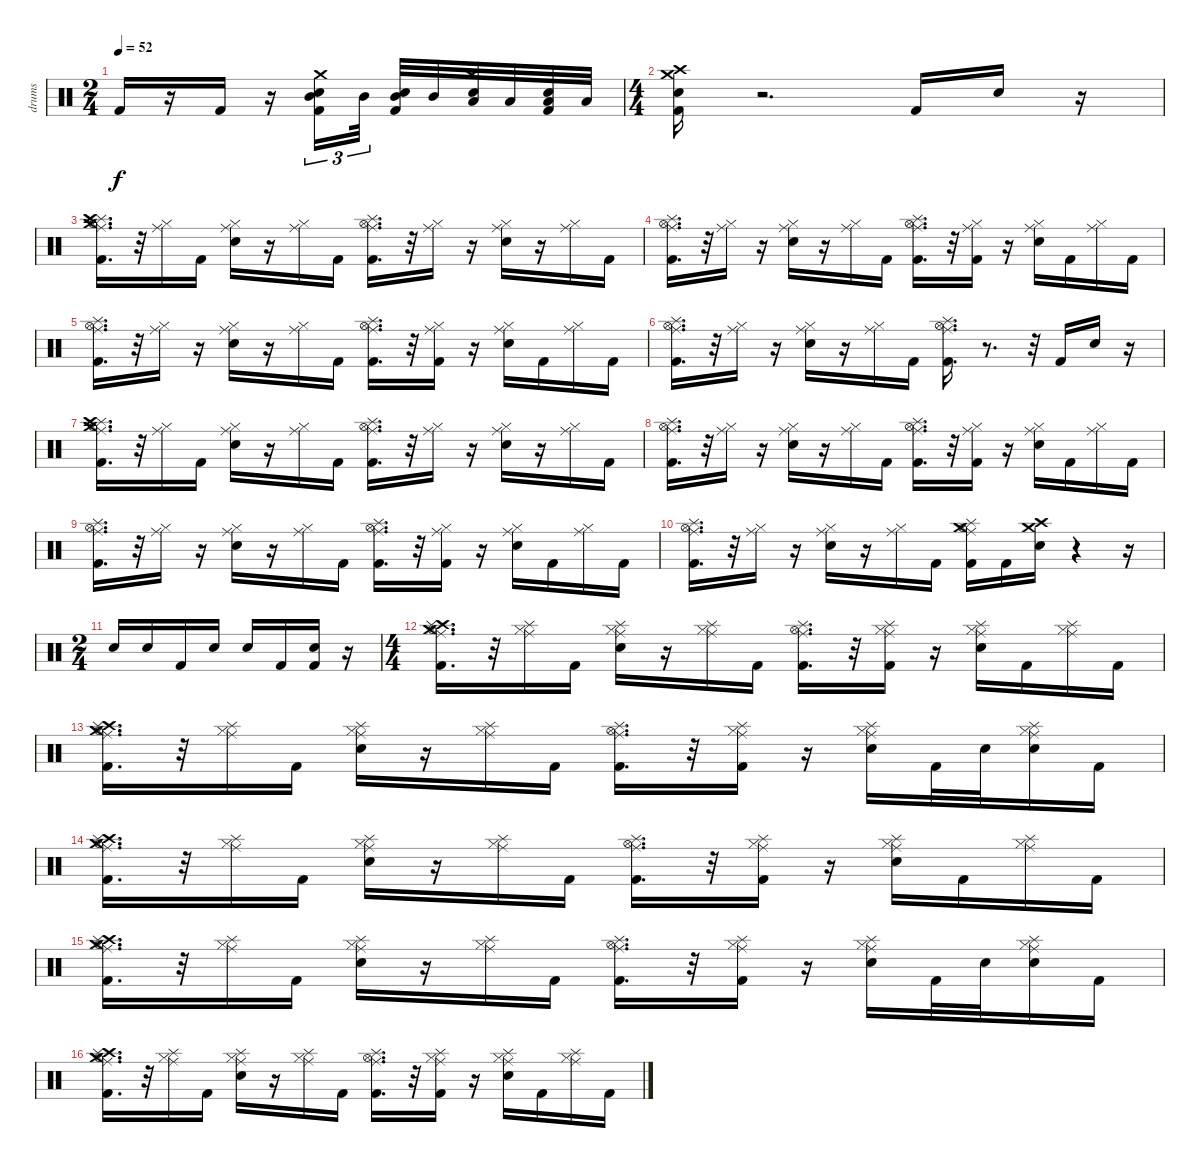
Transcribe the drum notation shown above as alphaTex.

\track ("drums" "drums") {instrument percussion}
\staff {score}
\articulation defaults
\ts (2 4)
\tempo 52
\clef neutral
\ks c "Kick (hit) 2".16{dy f}
r.16 "Kick (hit) 2".16 r.16 ("Mid Tom (hit)" "Kick (hit) 2" "Snare (hit) 2" "Crash medium (hit)").16{tu (3 2)} "Mid Tom (hit)".32{tu (3 2)} ("Mid Tom (hit)" "Kick (hit) 2" "Snare (hit) 2").32 "Mid Tom (hit)".32 ("Low Tom (hit)" "Snare (hit) 2" "Crash medium (hit)").32 "Low Tom (hit)".32 ("Low Tom (hit)" "Kick (hit) 2" "Snare (hit) 2").32 "Low Tom (hit)".32 |
\ts (4 4)
("Crash medium (hit)" "Crash high (hit)" "Kick (hit) 2" "Snare (hit) 2").16 r.2{d} "Kick (hit) 2".16 "Snare (hit) 2".16 r.16 |
("Ride (middle)" "Hi-Hat (open)" "Splash (hit)" "Crash medium (hit)" "Crash high (hit)" "Kick (hit) 2").16{d} r.32 ("Ride (middle)" "Hi-Hat (closed)").16 "Kick (hit) 2".16 ("Ride (middle)" "Hi-Hat (closed)" "Snare (hit) 2").16 r.16 ("Ride (middle)" "Hi-Hat (closed)").16 "Kick (hit) 2".16 ("Ride (middle)" "Hi-Hat (open)" "Splash (hit)" "Kick (hit) 2").16{d} r.32 ("Ride (middle)" "Hi-Hat (closed)").16 r.16 ("Ride (middle)" "Hi-Hat (closed)" "Snare (hit) 2").16 r.16 ("Ride (middle)" "Hi-Hat (closed)").16 "Kick (hit) 2".16 |
("Ride (middle)" "Hi-Hat (open)" "Splash (hit)" "Kick (hit) 2").16{d} r.32 ("Ride (middle)" "Hi-Hat (closed)").16 r.16 ("Ride (middle)" "Hi-Hat (closed)" "Snare (hit) 2").16 r.16 ("Ride (middle)" "Hi-Hat (closed)").16 "Kick (hit) 2".16 ("Ride (middle)" "Hi-Hat (open)" "Splash (hit)" "Kick (hit) 2").16{d} r.32 ("Ride (middle)" "Hi-Hat (closed)" "Kick (hit) 2").16 r.16 ("Ride (middle)" "Hi-Hat (closed)" "Snare (hit) 2").16 "Kick (hit) 2".16 ("Ride (middle)" "Hi-Hat (closed)").16 "Kick (hit) 2".16 |
("Ride (middle)" "Hi-Hat (open)" "Splash (hit)" "Kick (hit) 2").16{d} r.32 ("Ride (middle)" "Hi-Hat (closed)").16 r.16 ("Ride (middle)" "Hi-Hat (closed)" "Snare (hit) 2").16 r.16 ("Ride (middle)" "Hi-Hat (closed)").16 "Kick (hit) 2".16 ("Ride (middle)" "Hi-Hat (open)" "Splash (hit)" "Kick (hit) 2").16{d} r.32 ("Ride (middle)" "Hi-Hat (closed)" "Kick (hit) 2").16 r.16 ("Ride (middle)" "Hi-Hat (closed)" "Snare (hit) 2").16 "Kick (hit) 2".16 ("Ride (middle)" "Hi-Hat (closed)").16 "Kick (hit) 2".16 |
("Ride (middle)" "Hi-Hat (open)" "Splash (hit)" "Kick (hit) 2").16{d} r.32 ("Ride (middle)" "Hi-Hat (closed)").16 r.16 ("Ride (middle)" "Hi-Hat (closed)" "Snare (hit) 2").16 r.16 ("Ride (middle)" "Hi-Hat (closed)").16 "Kick (hit) 2".16 ("Ride (middle)" "Hi-Hat (open)" "Splash (hit)" "Kick (hit) 2").16{d} r.8{d} r.32 "Kick (hit) 2".16 "Snare (hit) 2".16 r.16 |
("Ride (middle)" "Hi-Hat (open)" "Splash (hit)" "Crash medium (hit)" "Crash high (hit)" "Kick (hit) 2").16{d} r.32 ("Ride (middle)" "Hi-Hat (closed)").16 "Kick (hit) 2".16 ("Ride (middle)" "Hi-Hat (closed)" "Snare (hit) 2").16 r.16 ("Ride (middle)" "Hi-Hat (closed)").16 "Kick (hit) 2".16 ("Ride (middle)" "Hi-Hat (open)" "Splash (hit)" "Kick (hit) 2").16{d} r.32 ("Ride (middle)" "Hi-Hat (closed)").16 r.16 ("Ride (middle)" "Hi-Hat (closed)" "Snare (hit) 2").16 r.16 ("Ride (middle)" "Hi-Hat (closed)").16 "Kick (hit) 2".16 |
("Ride (middle)" "Hi-Hat (open)" "Splash (hit)" "Kick (hit) 2").16{d} r.32 ("Ride (middle)" "Hi-Hat (closed)").16 r.16 ("Ride (middle)" "Hi-Hat (closed)" "Snare (hit) 2").16 r.16 ("Ride (middle)" "Hi-Hat (closed)").16 "Kick (hit) 2".16 ("Ride (middle)" "Hi-Hat (open)" "Splash (hit)" "Kick (hit) 2").16{d} r.32 ("Ride (middle)" "Hi-Hat (closed)" "Kick (hit) 2").16 r.16 ("Ride (middle)" "Hi-Hat (closed)" "Snare (hit) 2").16 "Kick (hit) 2".16 ("Ride (middle)" "Hi-Hat (closed)").16 "Kick (hit) 2".16 |
("Ride (middle)" "Hi-Hat (open)" "Splash (hit)" "Kick (hit) 2").16{d} r.32 ("Ride (middle)" "Hi-Hat (closed)").16 r.16 ("Ride (middle)" "Hi-Hat (closed)" "Snare (hit) 2").16 r.16 ("Ride (middle)" "Hi-Hat (closed)").16 "Kick (hit) 2".16 ("Ride (middle)" "Hi-Hat (open)" "Splash (hit)" "Kick (hit) 2").16{d} r.32 ("Ride (middle)" "Hi-Hat (closed)" "Kick (hit) 2").16 r.16 ("Ride (middle)" "Hi-Hat (closed)" "Snare (hit) 2").16 "Kick (hit) 2".16 ("Ride (middle)" "Hi-Hat (closed)").16 "Kick (hit) 2".16 |
("Ride (middle)" "Hi-Hat (open)" "Splash (hit)" "Kick (hit) 2").16{d} r.32 ("Ride (middle)" "Hi-Hat (closed)").16 r.16 ("Ride (middle)" "Hi-Hat (closed)" "Snare (hit) 2").16 r.16 ("Ride (middle)" "Hi-Hat (closed)").16 "Kick (hit) 2".16 ("Ride (middle)" "Hi-Hat (open)" "Splash (hit)" "Kick (hit) 2" "Crash medium (hit)").16 "Kick (hit) 2".16 ("Crash medium (hit)" "Crash high (hit)" "Snare (hit) 2").16 r.4 r.16 |
\ts (2 4)
"Snare (hit) 2".16 "Snare (hit) 2".16 "Kick (hit) 2".16 "Snare (hit) 2".16 "Snare (hit) 2".16 "Kick (hit) 2".16 ("Snare (hit) 2" "Kick (hit) 2").16 r.16 |
\ts (4 4)
("Crash medium (hit)" "Crash high (hit)" "Kick (hit) 2" "Ride (middle)" "Hi-Hat (open)" "Splash (hit)").16{d} r.32 ("Ride (middle)" "Hi-Hat (closed)" "Splash (hit)").16 "Kick (hit) 2".16 ("Snare (hit) 2" "Ride (middle)" "Hi-Hat (closed)" "Splash (hit)").16 r.16 ("Ride (middle)" "Hi-Hat (closed)" "Splash (hit)").16 "Kick (hit) 2".16 ("Kick (hit) 2" "Ride (middle)" "Hi-Hat (open)" "Splash (hit)").16{d} r.32 ("Kick (hit) 2" "Ride (middle)" "Hi-Hat (closed)" "Splash (hit)").16 r.16 ("Snare (hit) 2" "Ride (middle)" "Hi-Hat (closed)" "Splash (hit)").16 "Kick (hit) 2".16 ("Ride (middle)" "Hi-Hat (closed)" "Splash (hit)").16 "Kick (hit) 2".16 |
("Crash medium (hit)" "Crash high (hit)" "Kick (hit) 2" "Ride (middle)" "Hi-Hat (open)" "Splash (hit)").16{d} r.32 ("Ride (middle)" "Hi-Hat (closed)" "Splash (hit)").16 "Kick (hit) 2".16 ("Snare (hit) 2" "Ride (middle)" "Hi-Hat (closed)" "Splash (hit)").16 r.16 ("Ride (middle)" "Hi-Hat (closed)" "Splash (hit)").16 "Kick (hit) 2".16 ("Kick (hit) 2" "Ride (middle)" "Hi-Hat (open)" "Splash (hit)").16{d} r.32 ("Kick (hit) 2" "Ride (middle)" "Hi-Hat (closed)" "Splash (hit)").16 r.16 ("Snare (hit) 2" "Ride (middle)" "Hi-Hat (closed)" "Splash (hit)").16 "Kick (hit) 2".32 "Snare (hit) 2".32 ("Hi-Hat (closed)" "Splash (hit)" "Ride (middle)" "Snare (hit) 2").16 "Kick (hit) 2".16 |
("Crash medium (hit)" "Crash high (hit)" "Kick (hit) 2" "Ride (middle)" "Hi-Hat (open)" "Splash (hit)").16{d} r.32 ("Ride (middle)" "Hi-Hat (closed)" "Splash (hit)").16 "Kick (hit) 2".16 ("Snare (hit) 2" "Ride (middle)" "Hi-Hat (closed)" "Splash (hit)").16 r.16 ("Ride (middle)" "Hi-Hat (closed)" "Splash (hit)").16 "Kick (hit) 2".16 ("Kick (hit) 2" "Ride (middle)" "Hi-Hat (open)" "Splash (hit)").16{d} r.32 ("Kick (hit) 2" "Ride (middle)" "Hi-Hat (closed)" "Splash (hit)").16 r.16 ("Snare (hit) 2" "Ride (middle)" "Hi-Hat (closed)" "Splash (hit)").16 "Kick (hit) 2".16 ("Ride (middle)" "Hi-Hat (closed)" "Splash (hit)").16 "Kick (hit) 2".16 |
("Crash medium (hit)" "Crash high (hit)" "Kick (hit) 2" "Ride (middle)" "Hi-Hat (open)" "Splash (hit)").16{d} r.32 ("Ride (middle)" "Hi-Hat (closed)" "Splash (hit)").16 "Kick (hit) 2".16 ("Snare (hit) 2" "Ride (middle)" "Hi-Hat (closed)" "Splash (hit)").16 r.16 ("Ride (middle)" "Hi-Hat (closed)" "Splash (hit)").16 "Kick (hit) 2".16 ("Kick (hit) 2" "Ride (middle)" "Hi-Hat (open)" "Splash (hit)").16{d} r.32 ("Kick (hit) 2" "Ride (middle)" "Hi-Hat (closed)" "Splash (hit)").16 r.16 ("Snare (hit) 2" "Ride (middle)" "Hi-Hat (closed)" "Splash (hit)").16 "Kick (hit) 2".32 "Snare (hit) 2".32 ("Hi-Hat (closed)" "Splash (hit)" "Ride (middle)" "Snare (hit) 2").16 "Kick (hit) 2".16 |
("Crash medium (hit)" "Crash high (hit)" "Kick (hit) 2" "Ride (middle)" "Hi-Hat (open)" "Splash (hit)").16{d} r.32 ("Ride (middle)" "Hi-Hat (closed)" "Splash (hit)").16 "Kick (hit) 2".16 ("Snare (hit) 2" "Ride (middle)" "Hi-Hat (closed)" "Splash (hit)").16 r.16 ("Ride (middle)" "Hi-Hat (closed)" "Splash (hit)").16 "Kick (hit) 2".16 ("Kick (hit) 2" "Ride (middle)" "Hi-Hat (open)" "Splash (hit)").16{d} r.32 ("Kick (hit) 2" "Ride (middle)" "Hi-Hat (closed)" "Splash (hit)").16 r.16 ("Snare (hit) 2" "Ride (middle)" "Hi-Hat (closed)" "Splash (hit)").16 "Kick (hit) 2".16 ("Ride (middle)" "Hi-Hat (closed)" "Splash (hit)").16 "Kick (hit) 2".16
